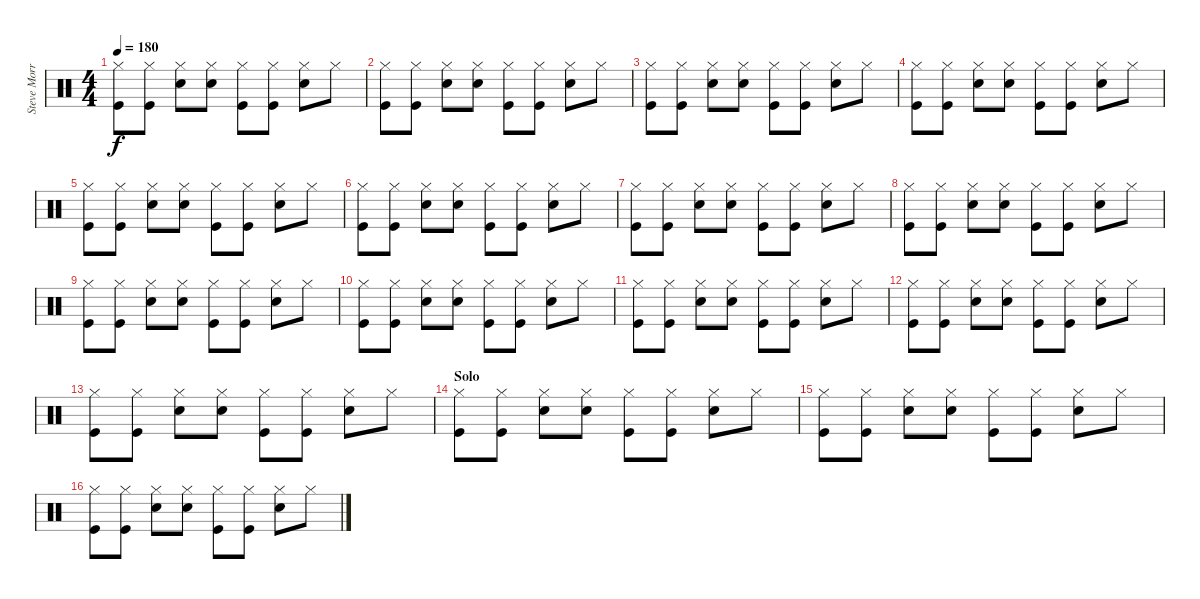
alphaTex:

\track ("Steve Morris" "Steve Morr") {instrument percussion}
\staff {score}
\articulation defaults
\ts (4 4)
\tempo 180
\clef neutral
\ks c
("Hi-Hat (closed)" "Kick (hit)").8{dy f} ("Hi-Hat (closed)" "Kick (hit)").8 ("Hi-Hat (closed)" "Electric Snare (hit)").8 ("Hi-Hat (closed)" "Electric Snare (hit)").8 ("Hi-Hat (closed)" "Kick (hit)").8 ("Hi-Hat (closed)" "Kick (hit)").8 ("Hi-Hat (closed)" "Electric Snare (hit)").8 "Hi-Hat (closed)".8 |
("Hi-Hat (closed)" "Kick (hit)").8 ("Hi-Hat (closed)" "Kick (hit)").8 ("Hi-Hat (closed)" "Electric Snare (hit)").8 ("Hi-Hat (closed)" "Electric Snare (hit)").8 ("Hi-Hat (closed)" "Kick (hit)").8 ("Hi-Hat (closed)" "Kick (hit)").8 ("Hi-Hat (closed)" "Electric Snare (hit)").8 "Hi-Hat (closed)".8 |
("Hi-Hat (closed)" "Kick (hit)").8 ("Hi-Hat (closed)" "Kick (hit)").8 ("Hi-Hat (closed)" "Electric Snare (hit)").8 ("Hi-Hat (closed)" "Electric Snare (hit)").8 ("Hi-Hat (closed)" "Kick (hit)").8 ("Hi-Hat (closed)" "Kick (hit)").8 ("Hi-Hat (closed)" "Electric Snare (hit)").8 "Hi-Hat (closed)".8 |
("Hi-Hat (closed)" "Kick (hit)").8 ("Hi-Hat (closed)" "Kick (hit)").8 ("Hi-Hat (closed)" "Electric Snare (hit)").8 ("Hi-Hat (closed)" "Electric Snare (hit)").8 ("Hi-Hat (closed)" "Kick (hit)").8 ("Hi-Hat (closed)" "Kick (hit)").8 ("Hi-Hat (closed)" "Electric Snare (hit)").8 "Hi-Hat (closed)".8 |
("Hi-Hat (closed)" "Kick (hit)").8 ("Hi-Hat (closed)" "Kick (hit)").8 ("Hi-Hat (closed)" "Electric Snare (hit)").8 ("Hi-Hat (closed)" "Electric Snare (hit)").8 ("Hi-Hat (closed)" "Kick (hit)").8 ("Hi-Hat (closed)" "Kick (hit)").8 ("Hi-Hat (closed)" "Electric Snare (hit)").8 "Hi-Hat (closed)".8 |
("Hi-Hat (closed)" "Kick (hit)").8 ("Hi-Hat (closed)" "Kick (hit)").8 ("Hi-Hat (closed)" "Electric Snare (hit)").8 ("Hi-Hat (closed)" "Electric Snare (hit)").8 ("Hi-Hat (closed)" "Kick (hit)").8 ("Hi-Hat (closed)" "Kick (hit)").8 ("Hi-Hat (closed)" "Electric Snare (hit)").8 "Hi-Hat (closed)".8 |
("Hi-Hat (closed)" "Kick (hit)").8 ("Hi-Hat (closed)" "Kick (hit)").8 ("Hi-Hat (closed)" "Electric Snare (hit)").8 ("Hi-Hat (closed)" "Electric Snare (hit)").8 ("Hi-Hat (closed)" "Kick (hit)").8 ("Hi-Hat (closed)" "Kick (hit)").8 ("Hi-Hat (closed)" "Electric Snare (hit)").8 "Hi-Hat (closed)".8 |
("Hi-Hat (closed)" "Kick (hit)").8 ("Hi-Hat (closed)" "Kick (hit)").8 ("Hi-Hat (closed)" "Electric Snare (hit)").8 ("Hi-Hat (closed)" "Electric Snare (hit)").8 ("Hi-Hat (closed)" "Kick (hit)").8 ("Hi-Hat (closed)" "Kick (hit)").8 ("Hi-Hat (closed)" "Electric Snare (hit)").8 "Hi-Hat (closed)".8 |
("Hi-Hat (closed)" "Kick (hit)").8 ("Hi-Hat (closed)" "Kick (hit)").8 ("Hi-Hat (closed)" "Electric Snare (hit)").8 ("Hi-Hat (closed)" "Electric Snare (hit)").8 ("Hi-Hat (closed)" "Kick (hit)").8 ("Hi-Hat (closed)" "Kick (hit)").8 ("Hi-Hat (closed)" "Electric Snare (hit)").8 "Hi-Hat (closed)".8 |
("Hi-Hat (closed)" "Kick (hit)").8 ("Hi-Hat (closed)" "Kick (hit)").8 ("Hi-Hat (closed)" "Electric Snare (hit)").8 ("Hi-Hat (closed)" "Electric Snare (hit)").8 ("Hi-Hat (closed)" "Kick (hit)").8 ("Hi-Hat (closed)" "Kick (hit)").8 ("Hi-Hat (closed)" "Electric Snare (hit)").8 "Hi-Hat (closed)".8 |
("Hi-Hat (closed)" "Kick (hit)").8 ("Hi-Hat (closed)" "Kick (hit)").8 ("Hi-Hat (closed)" "Electric Snare (hit)").8 ("Hi-Hat (closed)" "Electric Snare (hit)").8 ("Hi-Hat (closed)" "Kick (hit)").8 ("Hi-Hat (closed)" "Kick (hit)").8 ("Hi-Hat (closed)" "Electric Snare (hit)").8 "Hi-Hat (closed)".8 |
("Hi-Hat (closed)" "Kick (hit)").8 ("Hi-Hat (closed)" "Kick (hit)").8 ("Hi-Hat (closed)" "Electric Snare (hit)").8 ("Hi-Hat (closed)" "Electric Snare (hit)").8 ("Hi-Hat (closed)" "Kick (hit)").8 ("Hi-Hat (closed)" "Kick (hit)").8 ("Hi-Hat (closed)" "Electric Snare (hit)").8 "Hi-Hat (closed)".8 |
("Hi-Hat (closed)" "Kick (hit)").8 ("Hi-Hat (closed)" "Kick (hit)").8 ("Hi-Hat (closed)" "Electric Snare (hit)").8 ("Hi-Hat (closed)" "Electric Snare (hit)").8 ("Hi-Hat (closed)" "Kick (hit)").8 ("Hi-Hat (closed)" "Kick (hit)").8 ("Hi-Hat (closed)" "Electric Snare (hit)").8 "Hi-Hat (closed)".8 |
\section ("" "Solo")
("Hi-Hat (closed)" "Kick (hit)").8 ("Hi-Hat (closed)" "Kick (hit)").8 ("Hi-Hat (closed)" "Electric Snare (hit)").8 ("Hi-Hat (closed)" "Electric Snare (hit)").8 ("Hi-Hat (closed)" "Kick (hit)").8 ("Hi-Hat (closed)" "Kick (hit)").8 ("Hi-Hat (closed)" "Electric Snare (hit)").8 "Hi-Hat (closed)".8 |
("Hi-Hat (closed)" "Kick (hit)").8 ("Hi-Hat (closed)" "Kick (hit)").8 ("Hi-Hat (closed)" "Electric Snare (hit)").8 ("Hi-Hat (closed)" "Electric Snare (hit)").8 ("Hi-Hat (closed)" "Kick (hit)").8 ("Hi-Hat (closed)" "Kick (hit)").8 ("Hi-Hat (closed)" "Electric Snare (hit)").8 "Hi-Hat (closed)".8 |
("Hi-Hat (closed)" "Kick (hit)").8 ("Hi-Hat (closed)" "Kick (hit)").8 ("Hi-Hat (closed)" "Electric Snare (hit)").8 ("Hi-Hat (closed)" "Electric Snare (hit)").8 ("Hi-Hat (closed)" "Kick (hit)").8 ("Hi-Hat (closed)" "Kick (hit)").8 ("Hi-Hat (closed)" "Electric Snare (hit)").8 "Hi-Hat (closed)".8
